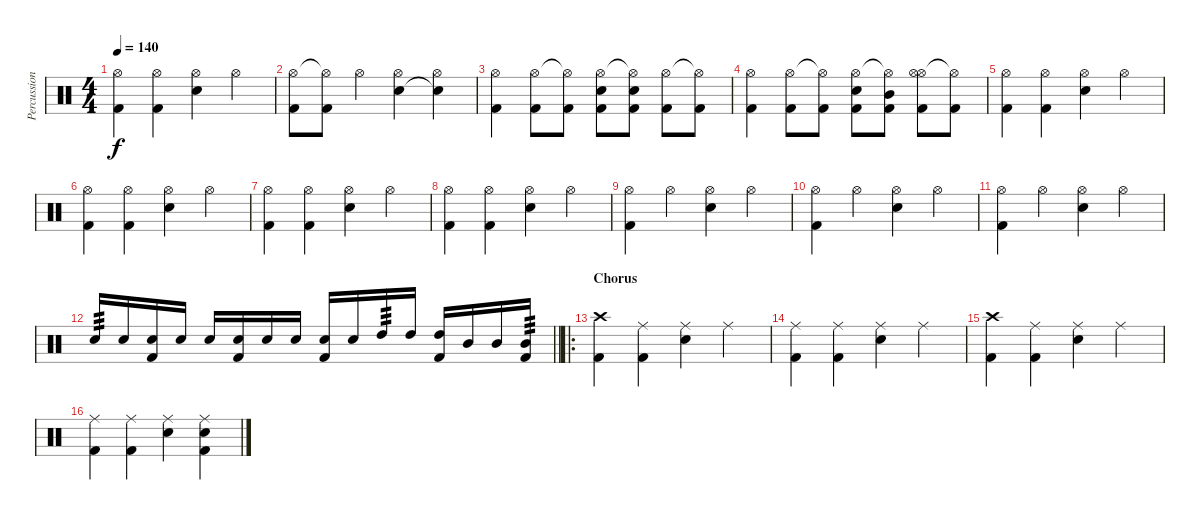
\track ("Percussion" "Percussion") {instrument percussion}
\staff {score}
\articulation defaults
\ts (4 4)
\tempo 140
\clef neutral
\ks c
("Hi-Hat (open)" "Kick (hit) 2").4{dy f} ("Hi-Hat (open)" "Kick (hit) 2").4 ("Hi-Hat (open)" "Snare (hit) 2").4 "Hi-Hat (open)".4 |
("Hi-Hat (open)" "Kick (hit) 2").8 ("Hi-Hat (open)"{t} "Kick (hit) 2").8 "Hi-Hat (open)".4 ("Hi-Hat (open)" "Snare (hit) 2").4 ("Hi-Hat (open)" "Snare (hit) 2"{t}).4 |
("Hi-Hat (open)" "Kick (hit) 2").4 ("Hi-Hat (open)" "Kick (hit) 2").8 ("Hi-Hat (open)"{t} "Kick (hit) 2").8 ("Hi-Hat (open)" "Snare (hit) 2" "Kick (hit) 2").8 ("Hi-Hat (open)"{t} "Snare (hit) 2" "Kick (hit) 2").8 ("Hi-Hat (open)" "Kick (hit) 2").8 ("Hi-Hat (open)"{t} "Kick (hit) 2").8 |
("Hi-Hat (open)" "Kick (hit) 2").4 ("Hi-Hat (open)" "Kick (hit) 2").8 ("Hi-Hat (open)"{t} "Kick (hit) 2").8 ("Hi-Hat (open)" "Snare (hit) 2" "Kick (hit) 2").8 ("Hi-Hat (open)"{t} "Mid Tom (hit)" "Kick (hit) 2").8 ("Hi-Hat (open)" "Hi-Hat (open)" "Kick (hit) 2").8 ("Hi-Hat (open)"{t} "Kick (hit) 2").8 |
("Hi-Hat (open)" "Kick (hit) 2").4 ("Hi-Hat (open)" "Kick (hit) 2").4 ("Hi-Hat (open)" "Snare (hit) 2").4 "Hi-Hat (open)".4 |
("Hi-Hat (open)" "Kick (hit) 2").4 ("Hi-Hat (open)" "Kick (hit) 2").4 ("Hi-Hat (open)" "Snare (hit) 2").4 "Hi-Hat (open)".4 |
("Hi-Hat (open)" "Kick (hit) 2").4 ("Hi-Hat (open)" "Kick (hit) 2").4 ("Hi-Hat (open)" "Snare (hit) 2").4 "Hi-Hat (open)".4 |
("Hi-Hat (open)" "Kick (hit) 2").4 ("Hi-Hat (open)" "Kick (hit) 2").4 ("Hi-Hat (open)" "Snare (hit) 2").4 "Hi-Hat (open)".4 |
("Hi-Hat (open)" "Kick (hit) 2").4 "Hi-Hat (open)".4 ("Hi-Hat (open)" "Snare (hit) 2").4 "Hi-Hat (open)".4 |
("Hi-Hat (open)" "Kick (hit) 2").4 "Hi-Hat (open)".4 ("Hi-Hat (open)" "Snare (hit) 2").4 "Hi-Hat (open)".4 |
("Hi-Hat (open)" "Kick (hit) 2").4 "Hi-Hat (open)".4 ("Hi-Hat (open)" "Snare (hit) 2").4 "Hi-Hat (open)".4 |
\barLineRight lightlight "Snare (hit) 2".16{tp 3} "Snare (hit) 2".16
("Kick (hit) 2" "Snare (hit) 2").16 "Snare (hit) 2".16 "Snare (hit) 2".16 ("Kick (hit) 2" "Snare (hit) 2").16 "Snare (hit) 2".16 "Snare (hit) 2".16 ("Kick (hit) 2" "Snare (hit) 2").16 "Snare (hit) 2".16 "High Tom (hit)".16{tp 3} "High Tom (hit)".16 ("Kick (hit) 2" "High Tom (hit)").16 "Mid Tom (hit)".16 "Mid Tom (hit)".16 ("Kick (hit) 2" "Mid Tom (hit)").16{tp 3} |
\ro
\section ("" "Chorus")
("Crash high (hit)" "Kick (hit) 2").4 ("Ride (middle)" "Kick (hit) 2").4 ("Ride (middle)" "Snare (hit) 2").4 "Ride (middle)".4 |
("Ride (middle)" "Kick (hit) 2").4 ("Ride (middle)" "Kick (hit) 2").4 ("Ride (middle)" "Snare (hit) 2").4 "Ride (middle)".4 |
("Crash high (hit)" "Kick (hit) 2").4 ("Ride (middle)" "Kick (hit) 2").4 ("Ride (middle)" "Snare (hit) 2").4 "Ride (middle)".4 |
("Ride (middle)" "Kick (hit) 2").4 ("Ride (middle)" "Kick (hit) 2").4 ("Ride (middle)" "Snare (hit) 2").4 ("Ride (middle)" "Snare (hit) 2" "Kick (hit) 2").4
